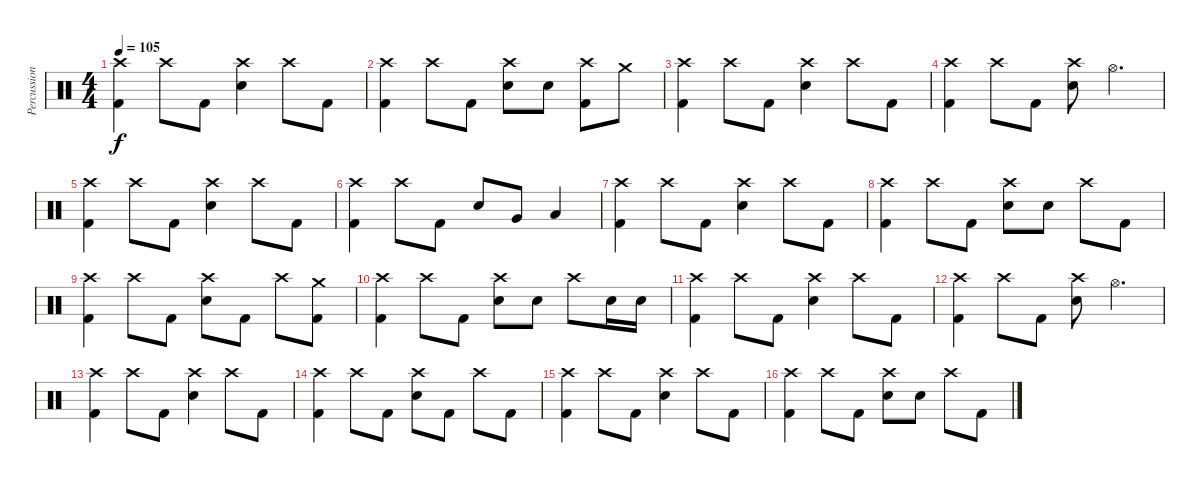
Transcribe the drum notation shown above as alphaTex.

\track ("Percussion" "Percussion") {instrument percussion}
\staff {score}
\articulation defaults
\ts (4 4)
\tempo 105
\clef neutral
\ks c
("Crash high (hit)" "Kick (hit) 2").4{dy f} "Crash high (hit)".8 "Kick (hit) 2".8 ("Crash high (hit)" "Electric Snare (hit)").4 "Crash high (hit)".8 "Kick (hit) 2".8 |
("Crash high (hit)" "Kick (hit) 2").4 "Crash high (hit)".8 "Kick (hit) 2".8 ("Crash high (hit)" "Electric Snare (hit)").8 "Electric Snare (hit)".8 ("Crash high (hit)" "Kick (hit) 2").8 "Crash medium (hit)".8 |
("Crash high (hit)" "Kick (hit) 2").4 "Crash high (hit)".8 "Kick (hit) 2".8 ("Crash high (hit)" "Electric Snare (hit)").4 "Crash high (hit)".8 "Kick (hit) 2".8 |
("Crash high (hit)" "Kick (hit) 2").4 "Crash high (hit)".8 "Kick (hit) 2".8 ("Crash high (hit)" "Electric Snare (hit)").8 "Hi-Hat (open)".4{d} |
("Crash high (hit)" "Kick (hit) 2").4 "Crash high (hit)".8 "Kick (hit) 2".8 ("Crash high (hit)" "Electric Snare (hit)").4 "Crash high (hit)".8 "Kick (hit) 2".8 |
("Crash high (hit)" "Kick (hit) 2").4 "Crash high (hit)".8 "Kick (hit) 2".8 "Electric Snare (hit)".8 "Very Low Tom (hit)".8 "Low Floor Tom (hit)".4 |
("Crash high (hit)" "Kick (hit) 2").4 "Crash high (hit)".8 "Kick (hit) 2".8 ("Crash high (hit)" "Electric Snare (hit)").4 "Crash high (hit)".8 "Kick (hit) 2".8 |
("Crash high (hit)" "Kick (hit) 2").4 "Crash high (hit)".8 "Kick (hit) 2".8 ("Crash high (hit)" "Electric Snare (hit)").8 "Electric Snare (hit)".8 "Crash high (hit)".8 "Kick (hit) 2".8 |
("Crash high (hit)" "Kick (hit) 2").4 "Crash high (hit)".8 "Kick (hit) 2".8 ("Crash high (hit)" "Electric Snare (hit)").8 "Kick (hit) 2".8 "Crash high (hit)".8 ("Crash medium (hit)" "Kick (hit) 2").8 |
("Crash high (hit)" "Kick (hit) 2").4 "Crash high (hit)".8 "Kick (hit) 2".8 ("Crash high (hit)" "Electric Snare (hit)").8 "Electric Snare (hit)".8 "Crash high (hit)".8 "Electric Snare (hit)".16 "Electric Snare (hit)".16 |
("Crash high (hit)" "Kick (hit) 2").4 "Crash high (hit)".8 "Kick (hit) 2".8 ("Crash high (hit)" "Electric Snare (hit)").4 "Crash high (hit)".8 "Kick (hit) 2".8 |
("Crash high (hit)" "Kick (hit) 2").4 "Crash high (hit)".8 "Kick (hit) 2".8 ("Crash high (hit)" "Electric Snare (hit)").8 "Hi-Hat (open)".4{d} |
("Crash high (hit)" "Kick (hit) 2").4 "Crash high (hit)".8 "Kick (hit) 2".8 ("Crash high (hit)" "Electric Snare (hit)").4 "Crash high (hit)".8 "Kick (hit) 2".8 |
("Crash high (hit)" "Kick (hit) 2").4 "Crash high (hit)".8 "Kick (hit) 2".8 ("Crash high (hit)" "Electric Snare (hit)").8 "Kick (hit) 2".8 "Crash high (hit)".8 "Kick (hit) 2".8 |
("Crash high (hit)" "Kick (hit) 2").4 "Crash high (hit)".8 "Kick (hit) 2".8 ("Crash high (hit)" "Electric Snare (hit)").4 "Crash high (hit)".8 "Kick (hit) 2".8 |
("Crash high (hit)" "Kick (hit) 2").4 "Crash high (hit)".8 "Kick (hit) 2".8 ("Crash high (hit)" "Electric Snare (hit)").8 "Electric Snare (hit)".8 "Crash high (hit)".8 "Kick (hit) 2".8
